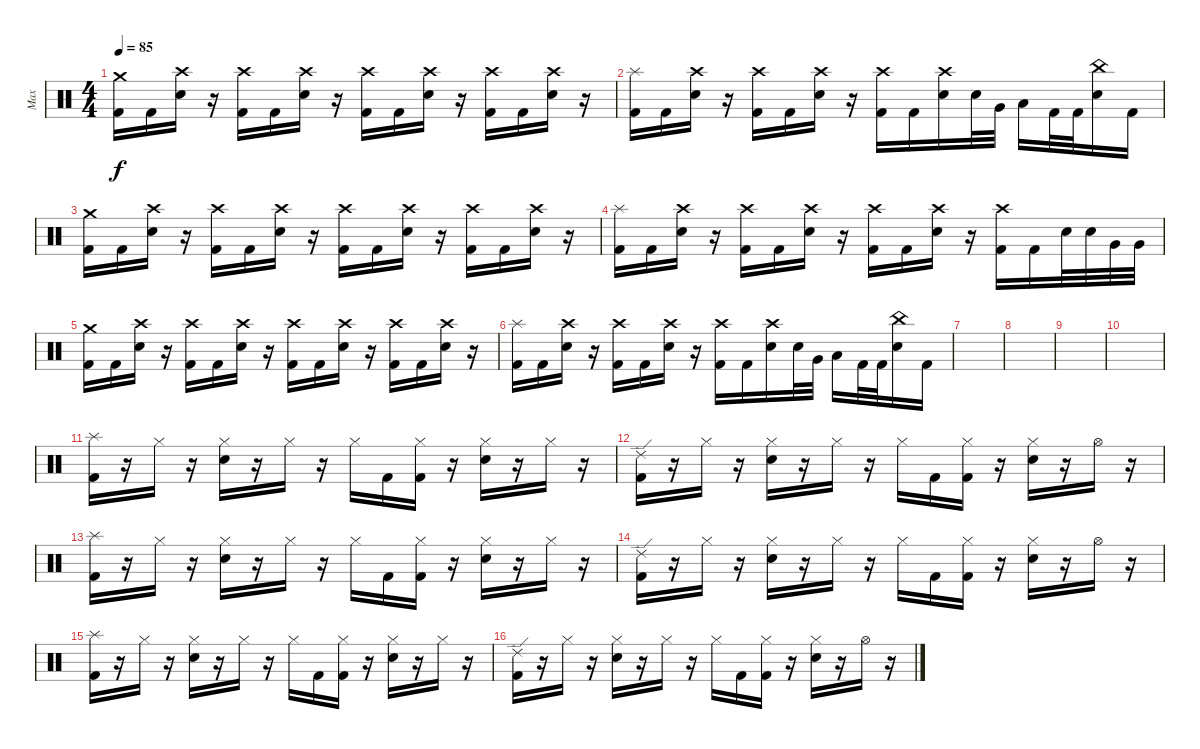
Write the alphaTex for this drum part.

\track ("Max" "Max") {instrument percussion}
\staff {score}
\articulation defaults
\ts (4 4)
\tempo 85
\clef neutral
\ks c
("Crash medium (hit)" "Kick (hit) 2").16{dy f} "Kick (hit) 2".16 ("Crash high (hit)" "Electric Snare (hit)").16 r.16 ("Crash high (hit)" "Kick (hit) 2").16 "Kick (hit) 2".16 ("Crash high (hit)" "Electric Snare (hit)").16 r.16 ("Crash high (hit)" "Kick (hit) 2").16 "Kick (hit) 2".16 ("Crash high (hit)" "Electric Snare (hit)").16 r.16 ("Crash high (hit)" "Kick (hit) 2").16 "Kick (hit) 2".16 ("Crash high (hit)" "Electric Snare (hit)").16 r.16 |
("Splash (hit)" "Kick (hit) 2").16 "Kick (hit) 2".16 ("Crash high (hit)" "Electric Snare (hit)").16 r.16 ("Crash high (hit)" "Kick (hit) 2").16 "Kick (hit) 2".16 ("Crash high (hit)" "Electric Snare (hit)").16 r.16 ("Crash high (hit)" "Kick (hit) 2").16 "Kick (hit) 2".16 ("Crash high (hit)" "Electric Snare (hit)").16 "Electric Snare (hit)".32 "Very Low Tom (hit)".32 "Low Floor Tom (hit)".16 "Kick (hit) 2".32 "Kick (hit) 2".32 ("China (hit)" "Electric Snare (hit)").16 "Kick (hit) 2".16 |
("Crash medium (hit)" "Kick (hit) 2").16 "Kick (hit) 2".16 ("Crash high (hit)" "Electric Snare (hit)").16 r.16 ("Crash high (hit)" "Kick (hit) 2").16 "Kick (hit) 2".16 ("Crash high (hit)" "Electric Snare (hit)").16 r.16 ("Crash high (hit)" "Kick (hit) 2").16 "Kick (hit) 2".16 ("Crash high (hit)" "Electric Snare (hit)").16 r.16 ("Crash high (hit)" "Kick (hit) 2").16 "Kick (hit) 2".16 ("Crash high (hit)" "Electric Snare (hit)").16 r.16 |
("Splash (hit)" "Kick (hit) 2").16 "Kick (hit) 2".16 ("Crash high (hit)" "Electric Snare (hit)").16 r.16 ("Crash high (hit)" "Kick (hit) 2").16 "Kick (hit) 2".16 ("Crash high (hit)" "Electric Snare (hit)").16 r.16 ("Crash high (hit)" "Kick (hit) 2").16 "Kick (hit) 2".16 ("Crash high (hit)" "Electric Snare (hit)").16 r.16 ("Crash high (hit)" "Kick (hit) 2").16 "Kick (hit) 2".16 "Electric Snare (hit)".32 "Electric Snare (hit)".32 "Very Low Tom (hit)".32 "Very Low Tom (hit)".32 |
("Crash medium (hit)" "Kick (hit) 2").16 "Kick (hit) 2".16 ("Crash high (hit)" "Electric Snare (hit)").16 r.16 ("Crash high (hit)" "Kick (hit) 2").16 "Kick (hit) 2".16 ("Crash high (hit)" "Electric Snare (hit)").16 r.16 ("Crash high (hit)" "Kick (hit) 2").16 "Kick (hit) 2".16 ("Crash high (hit)" "Electric Snare (hit)").16 r.16 ("Crash high (hit)" "Kick (hit) 2").16 "Kick (hit) 2".16 ("Crash high (hit)" "Electric Snare (hit)").16 r.16 |
("Splash (hit)" "Kick (hit) 2").16 "Kick (hit) 2".16 ("Crash high (hit)" "Electric Snare (hit)").16 r.16 ("Crash high (hit)" "Kick (hit) 2").16 "Kick (hit) 2".16 ("Crash high (hit)" "Electric Snare (hit)").16 r.16 ("Crash high (hit)" "Kick (hit) 2").16 "Kick (hit) 2".16 ("Crash high (hit)" "Electric Snare (hit)").16 "Electric Snare (hit)".32 "Very Low Tom (hit)".32 "Low Floor Tom (hit)".16 "Kick (hit) 2".32 "Kick (hit) 2".32 ("China (hit)" "Electric Snare (hit)").16 "Kick (hit) 2".16 |
|
|
|
|
("Splash (hit)" "Kick (hit) 2").16 r.16 "Hi-Hat (closed)".16 r.16 ("Hi-Hat (closed)" "Electric Snare (hit)").16 r.16 "Hi-Hat (closed)".16 r.16 "Hi-Hat (closed)".16 "Kick (hit) 2".16 ("Hi-Hat (closed)" "Kick (hit) 2").16 r.16 ("Hi-Hat (closed)" "Electric Snare (hit)").16 r.16 "Hi-Hat (closed)".16 r.16 |
("Ride (edge) 2" "Kick (hit) 2").16 r.16 "Hi-Hat (closed)".16 r.16 ("Hi-Hat (closed)" "Electric Snare (hit)").16 r.16 "Hi-Hat (closed)".16 r.16 "Hi-Hat (closed)".16 "Kick (hit) 2".16 ("Hi-Hat (closed)" "Kick (hit) 2").16 r.16 ("Hi-Hat (closed)" "Electric Snare (hit)").16 r.16 "Hi-Hat (open)".16 r.16 |
("Splash (hit)" "Kick (hit) 2").16 r.16 "Hi-Hat (closed)".16 r.16 ("Hi-Hat (closed)" "Electric Snare (hit)").16 r.16 "Hi-Hat (closed)".16 r.16 "Hi-Hat (closed)".16 "Kick (hit) 2".16 ("Hi-Hat (closed)" "Kick (hit) 2").16 r.16 ("Hi-Hat (closed)" "Electric Snare (hit)").16 r.16 "Hi-Hat (closed)".16 r.16 |
("Ride (edge) 2" "Kick (hit) 2").16 r.16 "Hi-Hat (closed)".16 r.16 ("Hi-Hat (closed)" "Electric Snare (hit)").16 r.16 "Hi-Hat (closed)".16 r.16 "Hi-Hat (closed)".16 "Kick (hit) 2".16 ("Hi-Hat (closed)" "Kick (hit) 2").16 r.16 ("Hi-Hat (closed)" "Electric Snare (hit)").16 r.16 "Hi-Hat (open)".16 r.16 |
("Splash (hit)" "Kick (hit) 2").16 r.16 "Hi-Hat (closed)".16 r.16 ("Hi-Hat (closed)" "Electric Snare (hit)").16 r.16 "Hi-Hat (closed)".16 r.16 "Hi-Hat (closed)".16 "Kick (hit) 2".16 ("Hi-Hat (closed)" "Kick (hit) 2").16 r.16 ("Hi-Hat (closed)" "Electric Snare (hit)").16 r.16 "Hi-Hat (closed)".16 r.16 |
("Ride (edge) 2" "Kick (hit) 2").16 r.16 "Hi-Hat (closed)".16 r.16 ("Hi-Hat (closed)" "Electric Snare (hit)").16 r.16 "Hi-Hat (closed)".16 r.16 "Hi-Hat (closed)".16 "Kick (hit) 2".16 ("Hi-Hat (closed)" "Kick (hit) 2").16 r.16 ("Hi-Hat (closed)" "Electric Snare (hit)").16 r.16 "Hi-Hat (open)".16 r.16
